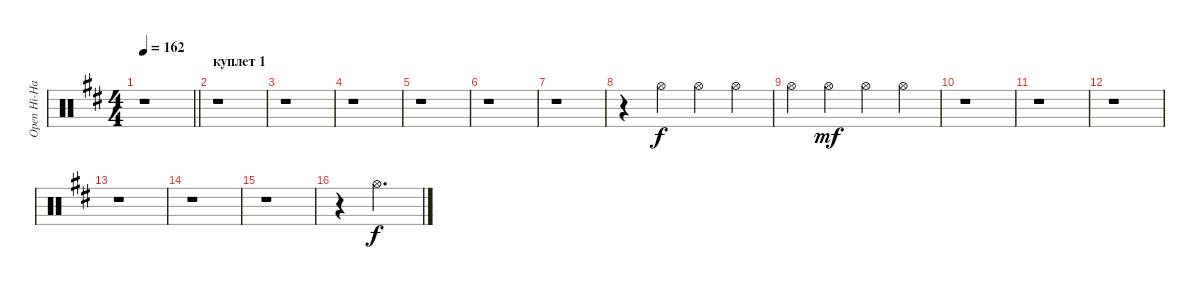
\track ("Open Hi-Hat" "Open Hi-Ha") {instrument percussion}
\staff {score}
\articulation defaults
\ts (4 4)
\tempo 162
\clef neutral
\barLineRight lightlight
\ks bminor
r.1{dy f} |
\section ("" "куплет 1")
r.1 |
r.1 |
r.1 |
r.1 |
r.1 |
r.1 |
r.4 "Hi-Hat (open)".4 "Hi-Hat (open)".4 "Hi-Hat (open)".4 |
"Hi-Hat (open)".4 "Hi-Hat (open)".4{dy mf} "Hi-Hat (open)".4 "Hi-Hat (open)".4 |
r.1 |
r.1 |
r.1 |
r.1 |
r.1 |
r.1 |
r.4 "Hi-Hat (open)".2{d dy f}
